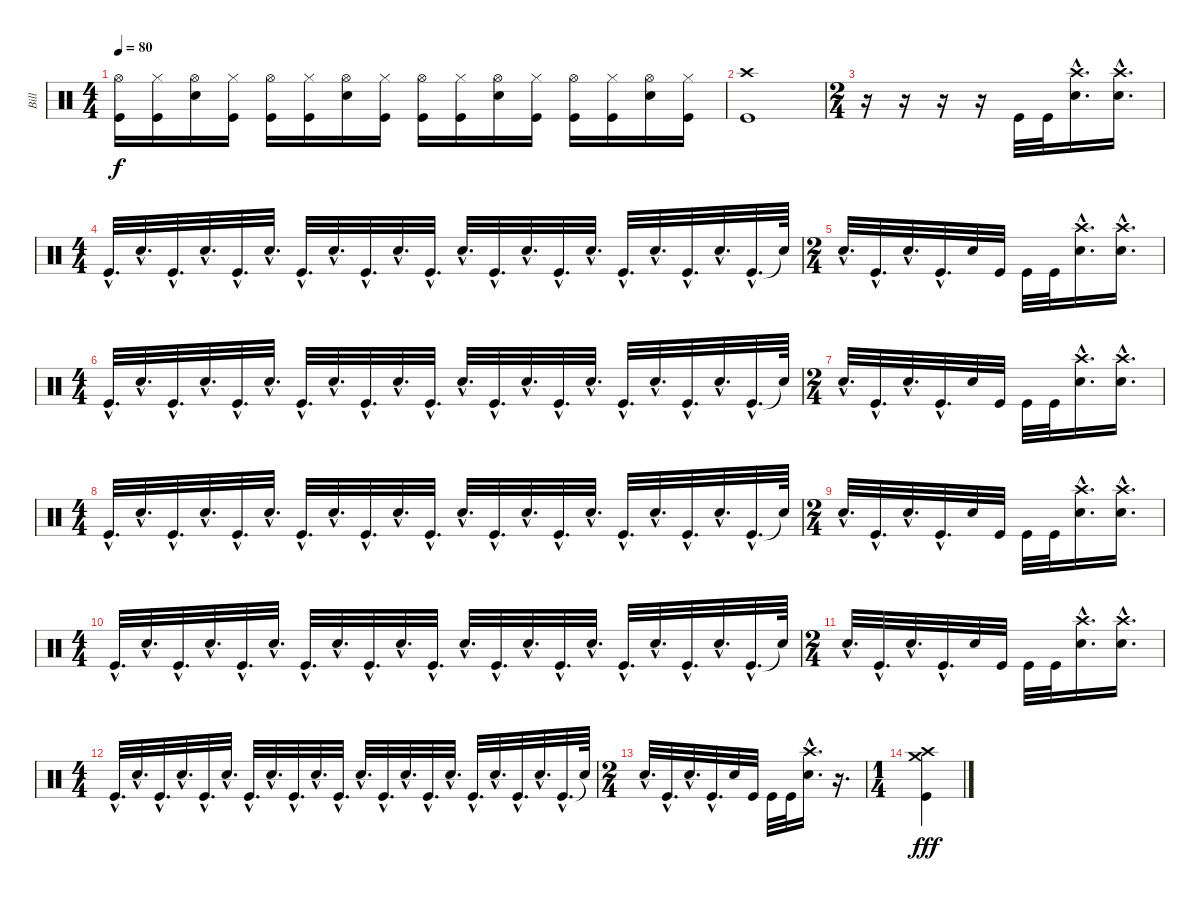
\track ("Bill" "Bill") {instrument percussion}
\staff {score}
\articulation defaults
\ts (4 4)
\tempo 80
\clef neutral
\ks c
("Hi-Hat (open)" "Kick (hit)").16{dy f} ("Hi-Hat (closed)" "Kick (hit)").16 ("Hi-Hat (open)" "Snare (hit) 2").16 ("Hi-Hat (closed)" "Kick (hit)").16 ("Hi-Hat (open)" "Kick (hit)").16 ("Hi-Hat (closed)" "Kick (hit)").16 ("Hi-Hat (open)" "Snare (hit) 2").16 ("Hi-Hat (closed)" "Kick (hit)").16 ("Hi-Hat (open)" "Kick (hit)").16 ("Hi-Hat (closed)" "Kick (hit)").16 ("Hi-Hat (open)" "Snare (hit) 2").16 ("Hi-Hat (closed)" "Kick (hit)").16 ("Hi-Hat (open)" "Kick (hit)").16 ("Hi-Hat (closed)" "Kick (hit)").16 ("Hi-Hat (open)" "Snare (hit) 2").16 ("Hi-Hat (closed)" "Kick (hit)").16 |
("Crash high (hit)" "Kick (hit)").1 |
\ts (2 4)
r.16 r.16 r.16 r.16 "Kick (hit)".32 "Kick (hit)".32 ("Crash high (hit)"{hac} "Snare (hit) 2"{hac}).16{d} ("Crash high (hit)"{hac} "Snare (hit) 2"{hac}).16{d} |
\ts (4 4)
"Kick (hit)"{hac}.32{d} "Snare (hit) 2"{hac}.32{d} "Kick (hit)"{hac}.32{d} "Snare (hit) 2"{hac}.32{d} "Kick (hit)"{hac}.32{d} "Snare (hit) 2"{hac}.32{d} "Kick (hit)"{hac}.32{d} "Snare (hit) 2"{hac}.32{d} "Kick (hit)"{hac}.32{d} "Snare (hit) 2"{hac}.32{d} "Kick (hit)"{hac}.32{d} "Snare (hit) 2"{hac}.32{d} "Kick (hit)"{hac}.32{d} "Snare (hit) 2"{hac}.32{d} "Kick (hit)"{hac}.32{d} "Snare (hit) 2"{hac}.32{d} "Kick (hit)"{hac}.32{d} "Snare (hit) 2"{hac}.32{d} "Kick (hit)"{hac}.32{d} "Snare (hit) 2"{hac}.32{d} "Kick (hit)"{hac}.32{d} "Snare (hit)"{t}.64 |
\ts (2 4)
"Snare (hit) 2"{hac}.32{d} "Kick (hit)"{hac}.32{d} "Snare (hit) 2"{hac}.32{d} "Kick (hit)"{hac}.32{d} "Snare (hit) 2".32 "Kick (hit)".32 "Kick (hit)".32 "Kick (hit)".32 ("Crash high (hit)"{hac} "Snare (hit) 2"{hac}).16{d} ("Crash high (hit)"{hac} "Snare (hit) 2"{hac}).16{d} |
\ts (4 4)
"Kick (hit)"{hac}.32{d} "Snare (hit) 2"{hac}.32{d} "Kick (hit)"{hac}.32{d} "Snare (hit) 2"{hac}.32{d} "Kick (hit)"{hac}.32{d} "Snare (hit) 2"{hac}.32{d} "Kick (hit)"{hac}.32{d} "Snare (hit) 2"{hac}.32{d} "Kick (hit)"{hac}.32{d} "Snare (hit) 2"{hac}.32{d} "Kick (hit)"{hac}.32{d} "Snare (hit) 2"{hac}.32{d} "Kick (hit)"{hac}.32{d} "Snare (hit) 2"{hac}.32{d} "Kick (hit)"{hac}.32{d} "Snare (hit) 2"{hac}.32{d} "Kick (hit)"{hac}.32{d} "Snare (hit) 2"{hac}.32{d} "Kick (hit)"{hac}.32{d} "Snare (hit) 2"{hac}.32{d} "Kick (hit)"{hac}.32{d} "Snare (hit)"{t}.64 |
\ts (2 4)
"Snare (hit) 2"{hac}.32{d} "Kick (hit)"{hac}.32{d} "Snare (hit) 2"{hac}.32{d} "Kick (hit)"{hac}.32{d} "Snare (hit) 2".32 "Kick (hit)".32 "Kick (hit)".32 "Kick (hit)".32 ("Crash high (hit)"{hac} "Snare (hit) 2"{hac}).16{d} ("Crash high (hit)"{hac} "Snare (hit) 2"{hac}).16{d} |
\ts (4 4)
"Kick (hit)"{hac}.32{d} "Snare (hit) 2"{hac}.32{d} "Kick (hit)"{hac}.32{d} "Snare (hit) 2"{hac}.32{d} "Kick (hit)"{hac}.32{d} "Snare (hit) 2"{hac}.32{d} "Kick (hit)"{hac}.32{d} "Snare (hit) 2"{hac}.32{d} "Kick (hit)"{hac}.32{d} "Snare (hit) 2"{hac}.32{d} "Kick (hit)"{hac}.32{d} "Snare (hit) 2"{hac}.32{d} "Kick (hit)"{hac}.32{d} "Snare (hit) 2"{hac}.32{d} "Kick (hit)"{hac}.32{d} "Snare (hit) 2"{hac}.32{d} "Kick (hit)"{hac}.32{d} "Snare (hit) 2"{hac}.32{d} "Kick (hit)"{hac}.32{d} "Snare (hit) 2"{hac}.32{d} "Kick (hit)"{hac}.32{d} "Snare (hit)"{t}.64 |
\ts (2 4)
"Snare (hit) 2"{hac}.32{d} "Kick (hit)"{hac}.32{d} "Snare (hit) 2"{hac}.32{d} "Kick (hit)"{hac}.32{d} "Snare (hit) 2".32 "Kick (hit)".32 "Kick (hit)".32 "Kick (hit)".32 ("Crash high (hit)"{hac} "Snare (hit) 2"{hac}).16{d} ("Crash high (hit)"{hac} "Snare (hit) 2"{hac}).16{d} |
\ts (4 4)
"Kick (hit)"{hac}.32{d} "Snare (hit) 2"{hac}.32{d} "Kick (hit)"{hac}.32{d} "Snare (hit) 2"{hac}.32{d} "Kick (hit)"{hac}.32{d} "Snare (hit) 2"{hac}.32{d} "Kick (hit)"{hac}.32{d} "Snare (hit) 2"{hac}.32{d} "Kick (hit)"{hac}.32{d} "Snare (hit) 2"{hac}.32{d} "Kick (hit)"{hac}.32{d} "Snare (hit) 2"{hac}.32{d} "Kick (hit)"{hac}.32{d} "Snare (hit) 2"{hac}.32{d} "Kick (hit)"{hac}.32{d} "Snare (hit) 2"{hac}.32{d} "Kick (hit)"{hac}.32{d} "Snare (hit) 2"{hac}.32{d} "Kick (hit)"{hac}.32{d} "Snare (hit) 2"{hac}.32{d} "Kick (hit)"{hac}.32{d} "Snare (hit)"{t}.64 |
\ts (2 4)
"Snare (hit) 2"{hac}.32{d} "Kick (hit)"{hac}.32{d} "Snare (hit) 2"{hac}.32{d} "Kick (hit)"{hac}.32{d} "Snare (hit) 2".32 "Kick (hit)".32 "Kick (hit)".32 "Kick (hit)".32 ("Crash high (hit)"{hac} "Snare (hit) 2"{hac}).16{d} ("Crash high (hit)"{hac} "Snare (hit) 2"{hac}).16{d} |
\ts (4 4)
"Kick (hit)"{hac}.32{d} "Snare (hit) 2"{hac}.32{d} "Kick (hit)"{hac}.32{d} "Snare (hit) 2"{hac}.32{d} "Kick (hit)"{hac}.32{d} "Snare (hit) 2"{hac}.32{d} "Kick (hit)"{hac}.32{d} "Snare (hit) 2"{hac}.32{d} "Kick (hit)"{hac}.32{d} "Snare (hit) 2"{hac}.32{d} "Kick (hit)"{hac}.32{d} "Snare (hit) 2"{hac}.32{d} "Kick (hit)"{hac}.32{d} "Snare (hit) 2"{hac}.32{d} "Kick (hit)"{hac}.32{d} "Snare (hit) 2"{hac}.32{d} "Kick (hit)"{hac}.32{d} "Snare (hit) 2"{hac}.32{d} "Kick (hit)"{hac}.32{d} "Snare (hit) 2"{hac}.32{d} "Kick (hit)"{hac}.32{d} "Snare (hit)"{t}.64 |
\ts (2 4)
"Snare (hit) 2"{hac}.32{d} "Kick (hit)"{hac}.32{d} "Snare (hit) 2"{hac}.32{d} "Kick (hit)"{hac}.32{d} "Snare (hit) 2".32 "Kick (hit)".32 "Kick (hit)".32 "Kick (hit)".32 ("Crash high (hit)"{hac} "Snare (hit) 2"{hac}).16{d} r.16{d} |
\ts (1 4)
("Crash medium (hit)" "Crash high (hit)" "Kick (hit)").4{dy fff}
